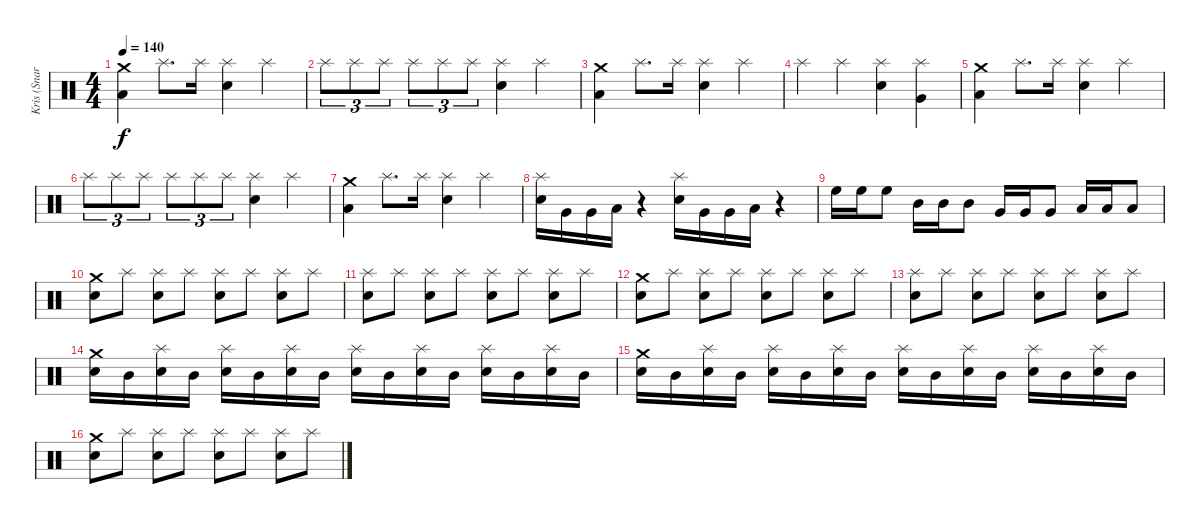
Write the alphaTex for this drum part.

\track ("Kris (Snares & Toms)" "Kris (Snar") {instrument percussion}
\staff {score}
\articulation defaults
\ts (4 4)
\tempo 140
\clef neutral
\ks c
("Crash medium (hit)" "Low Floor Tom (hit)").4{dy f} "Splash (hit)".8{d} "Splash (hit)".16 ("Splash (hit)" "Electric Snare (hit)").4 "Splash (hit)".4 |
"Splash (hit)".8{tu (3 2)} "Splash (hit)".8{tu (3 2)} "Splash (hit)".8{tu (3 2)} "Splash (hit)".8{tu (3 2)} "Splash (hit)".8{tu (3 2)} "Splash (hit)".8{tu (3 2)} ("Splash (hit)" "Electric Snare (hit)").4 "Splash (hit)".4 |
("Crash medium (hit)" "Low Floor Tom (hit)").4 "Splash (hit)".8{d} "Splash (hit)".16 ("Splash (hit)" "Electric Snare (hit)").4 "Splash (hit)".4 |
"Splash (hit)".4 "Splash (hit)".4 ("Splash (hit)" "Electric Snare (hit)").4 ("Very Low Tom (hit)" "Splash (hit)").4 |
("Crash medium (hit)" "Low Floor Tom (hit)").4 "Splash (hit)".8{d} "Splash (hit)".16 ("Splash (hit)" "Electric Snare (hit)").4 "Splash (hit)".4 |
"Splash (hit)".8{tu (3 2)} "Splash (hit)".8{tu (3 2)} "Splash (hit)".8{tu (3 2)} "Splash (hit)".8{tu (3 2)} "Splash (hit)".8{tu (3 2)} "Splash (hit)".8{tu (3 2)} ("Splash (hit)" "Electric Snare (hit)").4 "Splash (hit)".4 |
("Crash medium (hit)" "Low Floor Tom (hit)").4 "Splash (hit)".8{d} "Splash (hit)".16 ("Splash (hit)" "Electric Snare (hit)").4 "Splash (hit)".4 |
("Electric Snare (hit)" "Splash (hit)").16 "Very Low Tom (hit)".16 "Very Low Tom (hit)".16 "Low Floor Tom (hit)".16 r.4 ("Electric Snare (hit)" "Splash (hit)").16 "Very Low Tom (hit)".16 "Very Low Tom (hit)".16 "Low Floor Tom (hit)".16 r.4 |
"High Floor Tom (hit)".16 "High Floor Tom (hit)".16 "High Floor Tom (hit)".8 "Mid Tom (hit)".16 "Mid Tom (hit)".16 "Mid Tom (hit)".8 "Very Low Tom (hit)".16 "Very Low Tom (hit)".16 "Very Low Tom (hit)".8 "Low Floor Tom (hit)".16 "Low Floor Tom (hit)".16 "Low Floor Tom (hit)".8 |
("Crash medium (hit)" "Electric Snare (hit)").8 "Splash (hit)".8 ("Splash (hit)" "Electric Snare (hit)").8 "Splash (hit)".8 ("Splash (hit)" "Electric Snare (hit)").8 "Splash (hit)".8 ("Splash (hit)" "Electric Snare (hit)").8 "Splash (hit)".8 |
("Splash (hit)" "Electric Snare (hit)").8 "Splash (hit)".8 ("Splash (hit)" "Electric Snare (hit)").8 "Splash (hit)".8 ("Splash (hit)" "Electric Snare (hit)").8 "Splash (hit)".8 ("Splash (hit)" "Electric Snare (hit)").8 "Splash (hit)".8 |
("Crash medium (hit)" "Electric Snare (hit)").8 "Splash (hit)".8 ("Splash (hit)" "Electric Snare (hit)").8 "Splash (hit)".8 ("Splash (hit)" "Electric Snare (hit)").8 "Splash (hit)".8 ("Splash (hit)" "Electric Snare (hit)").8 "Splash (hit)".8 |
("Splash (hit)" "Electric Snare (hit)").8 "Splash (hit)".8 ("Splash (hit)" "Electric Snare (hit)").8 "Splash (hit)".8 ("Splash (hit)" "Electric Snare (hit)").8 "Splash (hit)".8 ("Splash (hit)" "Electric Snare (hit)").8 "Splash (hit)".8 |
("Crash medium (hit)" "Electric Snare (hit)").16 "Mid Tom (hit)".16 ("Splash (hit)" "Electric Snare (hit)").16 "Mid Tom (hit)".16 ("Splash (hit)" "Electric Snare (hit)").16 "Mid Tom (hit)".16 ("Splash (hit)" "Electric Snare (hit)").16 "Mid Tom (hit)".16 ("Splash (hit)" "Electric Snare (hit)").16 "Mid Tom (hit)".16 ("Splash (hit)" "Electric Snare (hit)").16 "Mid Tom (hit)".16 ("Splash (hit)" "Electric Snare (hit)").16 "Mid Tom (hit)".16 ("Splash (hit)" "Electric Snare (hit)").16 "Mid Tom (hit)".16 |
("Crash medium (hit)" "Electric Snare (hit)").16 "Mid Tom (hit)".16 ("Splash (hit)" "Electric Snare (hit)").16 "Mid Tom (hit)".16 ("Splash (hit)" "Electric Snare (hit)").16 "Mid Tom (hit)".16 ("Splash (hit)" "Electric Snare (hit)").16 "Mid Tom (hit)".16 ("Splash (hit)" "Electric Snare (hit)").16 "Mid Tom (hit)".16 ("Splash (hit)" "Electric Snare (hit)").16 "Mid Tom (hit)".16 ("Splash (hit)" "Electric Snare (hit)").16 "Mid Tom (hit)".16 ("Splash (hit)" "Electric Snare (hit)").16 "Mid Tom (hit)".16 |
("Crash medium (hit)" "Electric Snare (hit)").8 "Splash (hit)".8 ("Splash (hit)" "Electric Snare (hit)").8 "Splash (hit)".8 ("Splash (hit)" "Electric Snare (hit)").8 "Splash (hit)".8 ("Splash (hit)" "Electric Snare (hit)").8 "Splash (hit)".8
